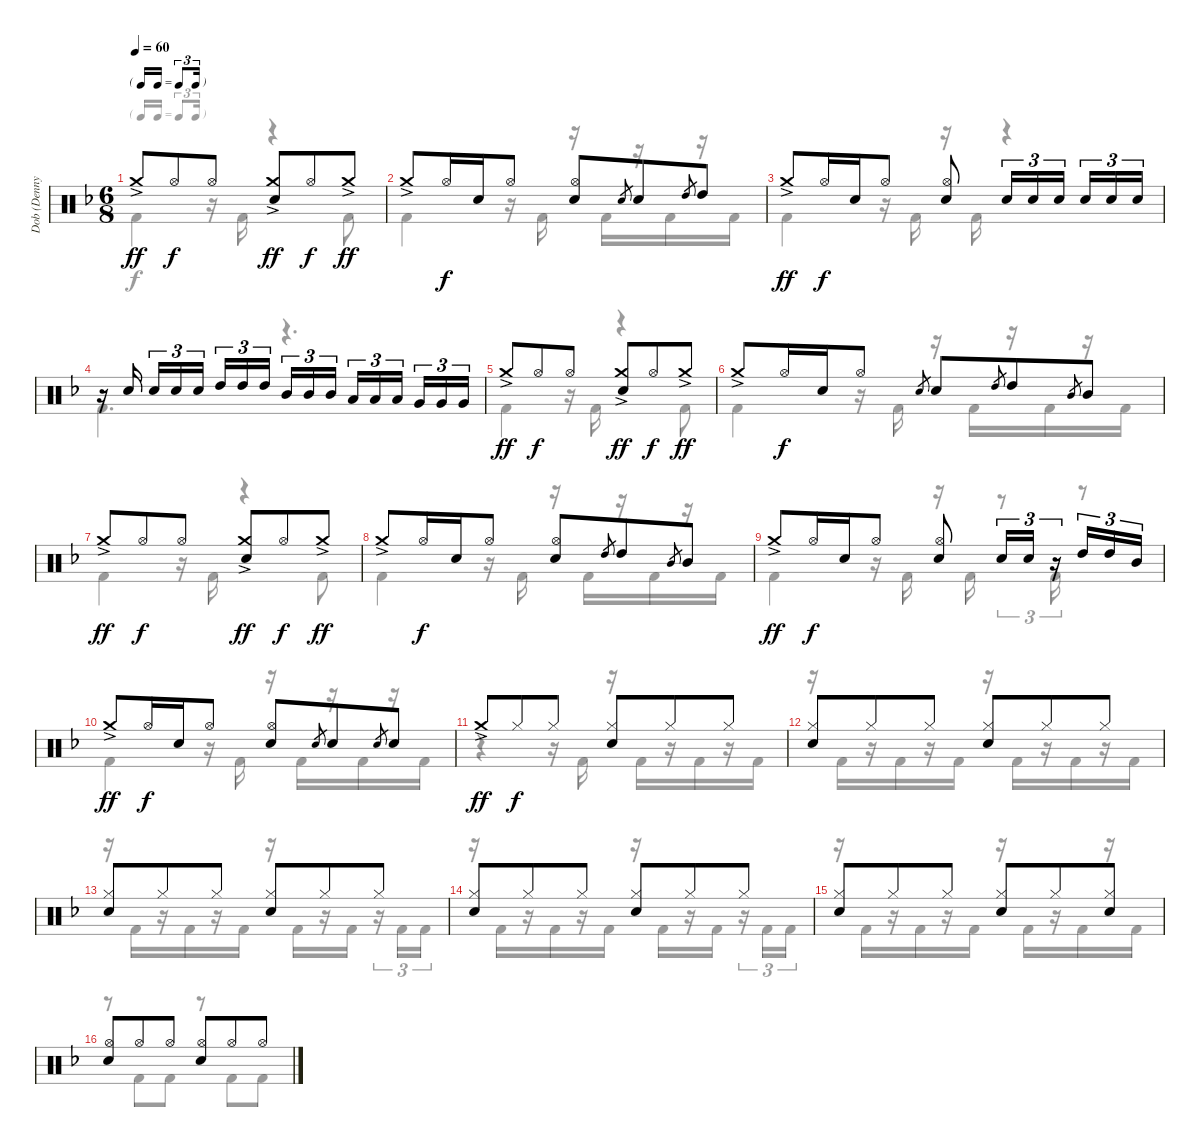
\track ("Dob (Denny Carmassy)" "Dob (Denny") {instrument percussion}
\staff {score}
\articulation defaults
\voice
\ts (6 8)
\tf triplet16th
\tempo 60
\clef neutral
\ks f "Crash medium (hit)"{ac}.8{dy ff} "Hi-Hat (open)".8{dy f} "Hi-Hat (open)".8
("Crash medium (hit)"{ac} "Electric Snare (hit)").8{dy ff} "Hi-Hat (open)".8{dy f} "Crash medium (hit)"{ac}.8{dy ff} |
"Crash medium (hit)"{ac}.8 "Hi-Hat (open)".16{dy f} "Electric Snare (hit)".16 "Hi-Hat (open)".8 ("Hi-Hat (open)" "Electric Snare (hit)").8 "Electric Snare (hit)".8{gr} "Electric Snare (hit)".8 "High Tom (hit)".8{gr} "High Tom (hit)".8 |
"Crash medium (hit)"{ac}.8{dy ff} "Hi-Hat (open)".16{dy f} "Electric Snare (hit)".16 "Hi-Hat (open)".8 ("Hi-Hat (open)" "Electric Snare (hit)").8 "Electric Snare (hit)".16{tu (3 2)} "Electric Snare (hit)".16{tu (3 2)} "Electric Snare (hit)".16{tu (3 2) beam splitsecondary} "Electric Snare (hit)".16{tu (3 2)} "Electric Snare (hit)".16{tu (3 2)} "Electric Snare (hit)".16{tu (3 2)} |
r.16 "Electric Snare (hit)".16{beam splitsecondary} "Electric Snare (hit)".16{tu (3 2)} "Electric Snare (hit)".16{tu (3 2)} "Electric Snare (hit)".16{tu (3 2) beam splitsecondary} "High Tom (hit)".16{tu (3 2)} "High Tom (hit)".16{tu (3 2)} "High Tom (hit)".16{tu (3 2)} "Mid Tom (hit)".16{tu (3 2)} "Mid Tom (hit)".16{tu (3 2)} "Mid Tom (hit)".16{tu (3 2) beam splitsecondary} "Low Tom (hit)".16{tu (3 2)} "Low Tom (hit)".16{tu (3 2)} "Low Tom (hit)".16{tu (3 2) beam splitsecondary} "Very Low Tom (hit)".16{tu (3 2)} "Very Low Tom (hit)".16{tu (3 2)} "Very Low Tom (hit)".16{tu (3 2)} |
"Crash medium (hit)"{ac}.8{dy ff} "Hi-Hat (open)".8{dy f} "Hi-Hat (open)".8 ("Crash medium (hit)"{ac} "Electric Snare (hit)").8{dy ff} "Hi-Hat (open)".8{dy f} "Crash medium (hit)"{ac}.8{dy ff} |
"Crash medium (hit)"{ac}.8 "Hi-Hat (open)".16{dy f} "Electric Snare (hit)".16 "Hi-Hat (open)".8 "Electric Snare (hit)".8{gr} "Electric Snare (hit)".8 "High Tom (hit)".8{gr} "High Tom (hit)".8 "Mid Tom (hit)".8{gr} "Mid Tom (hit)".8 |
"Crash medium (hit)"{ac}.8{dy ff} "Hi-Hat (open)".8{dy f} "Hi-Hat (open)".8 ("Crash medium (hit)"{ac} "Electric Snare (hit)").8{dy ff} "Hi-Hat (open)".8{dy f} "Crash medium (hit)"{ac}.8{dy ff} |
"Crash medium (hit)"{ac}.8 "Hi-Hat (open)".16{dy f} "Electric Snare (hit)".16 "Hi-Hat (open)".8 ("Hi-Hat (open)" "Electric Snare (hit)").8 "High Tom (hit)".8{gr} "High Tom (hit)".8 "Mid Tom (hit)".8{gr} "Mid Tom (hit)".8 |
"Crash medium (hit)"{ac}.8{dy ff} "Hi-Hat (open)".16{dy f} "Electric Snare (hit)".16 "Hi-Hat (open)".8 ("Hi-Hat (open)" "Electric Snare (hit)").8 "Electric Snare (hit)".16{tu (3 2)} "Electric Snare (hit)".16{tu (3 2)} r.16{tu (3 2)} "High Tom (hit)".16{tu (3 2)} "High Tom (hit)".16{tu (3 2)} "Mid Tom (hit)".16{tu (3 2)} |
"Crash medium (hit)"{ac}.8{dy ff} "Hi-Hat (open)".16{dy f} "Electric Snare (hit)".16 "Hi-Hat (open)".8 ("Hi-Hat (open)" "Electric Snare (hit)").8 "Electric Snare (hit)".8{gr} "Electric Snare (hit)".8 "Electric Snare (hit)".8{gr} "Electric Snare (hit)".8 |
"Crash medium (hit)"{ac}.8{dy ff} "Hi-Hat (closed)".8{dy f} "Hi-Hat (closed)".8 ("Hi-Hat (closed)" "Electric Snare (hit)").8 "Hi-Hat (closed)".8 "Hi-Hat (closed)".8 |
("Hi-Hat (closed)" "Electric Snare (hit)").8 "Hi-Hat (closed)".8 "Hi-Hat (closed)".8 ("Hi-Hat (closed)" "Electric Snare (hit)").8 "Hi-Hat (closed)".8 "Hi-Hat (closed)".8 |
("Hi-Hat (closed)" "Electric Snare (hit)").8 "Hi-Hat (closed)".8 "Hi-Hat (closed)".8 ("Hi-Hat (closed)" "Electric Snare (hit)").8 "Hi-Hat (closed)".8 "Hi-Hat (closed)".8 |
("Hi-Hat (closed)" "Electric Snare (hit)").8 "Hi-Hat (closed)".8 "Hi-Hat (closed)".8 ("Hi-Hat (closed)" "Electric Snare (hit)").8 "Hi-Hat (closed)".8 "Hi-Hat (closed)".8 |
("Hi-Hat (closed)" "Electric Snare (hit)").8 "Hi-Hat (closed)".8 "Hi-Hat (closed)".8 ("Hi-Hat (closed)" "Electric Snare (hit)").8 "Hi-Hat (closed)".8 ("Hi-Hat (closed)" "Electric Snare (hit)").8 |
("Hi-Hat (open)" "Electric Snare (hit)").8 "Hi-Hat (open)".8 "Hi-Hat (open)".8 ("Hi-Hat (open)" "Electric Snare (hit)").8 "Hi-Hat (open)".8 "Hi-Hat (open)".8
\voice
\clef neutral
\ottava regular
\simile none
\ks f "Kick (hit) 2".4{dy f}
r.16 "Kick (hit) 2".16 r.4 "Kick (hit) 2".8 |
"Kick (hit) 2".4 r.16 "Kick (hit) 2".16 r.16 "Kick (hit) 2".16 r.16 "Kick (hit) 2".16 r.16 "Kick (hit) 2".16 |
"Kick (hit) 2".4 r.16 "Kick (hit) 2".16 r.16 "Kick (hit) 2".16 r.4 |
"Kick (hit) 2".4{d} r.4{d} |
"Kick (hit) 2".4 r.16 "Kick (hit) 2".16 r.4 "Kick (hit) 2".8 |
"Kick (hit) 2".4 r.16 "Kick (hit) 2".16 r.16 "Kick (hit) 2".16 r.16 "Kick (hit) 2".16 r.16 "Kick (hit) 2".16 |
"Kick (hit) 2".4 r.16 "Kick (hit) 2".16 r.4 "Kick (hit) 2".8 |
"Kick (hit) 2".4 r.16 "Kick (hit) 2".16 r.16 "Kick (hit) 2".16 r.16 "Kick (hit) 2".16 r.16 "Kick (hit) 2".16 |
"Kick (hit) 2".4 r.16 "Kick (hit) 2".16 r.16 "Kick (hit) 2".16 r.8{tu (3 2)} "Kick (hit) 2".16{tu (3 2)} r.8 |
"Kick (hit) 2".4 r.16 "Kick (hit) 2".16 r.16 "Kick (hit) 2".16 r.16 "Kick (hit) 2".16 r.16 "Kick (hit) 2".16 |
r.4 r.16 "Kick (hit) 2".16 r.16 "Kick (hit) 2".16 r.16 "Kick (hit) 2".16 r.16 "Kick (hit) 2".16 |
r.16 "Kick (hit) 2".16 r.16 "Kick (hit) 2".16 r.16 "Kick (hit) 2".16 r.16 "Kick (hit) 2".16 r.16 "Kick (hit) 2".16 r.16 "Kick (hit) 2".16 |
r.16 "Kick (hit) 2".16 r.16 "Kick (hit) 2".16 r.16 "Kick (hit) 2".16 r.16 "Kick (hit) 2".16 r.16 "Kick (hit) 2".16 r.16{tu (3 2)} "Kick (hit) 2".16{tu (3 2)} "Kick (hit) 2".16{tu (3 2)} |
r.16 "Kick (hit) 2".16 r.16 "Kick (hit) 2".16 r.16 "Kick (hit) 2".16 r.16 "Kick (hit) 2".16 r.16 "Kick (hit) 2".16 r.16{tu (3 2)} "Kick (hit) 2".16{tu (3 2)} "Kick (hit) 2".16{tu (3 2)} |
r.16 "Kick (hit) 2".16 r.16 "Kick (hit) 2".16 r.16 "Kick (hit) 2".16 r.16 "Kick (hit) 2".16 r.16 "Kick (hit) 2".16 r.16 "Kick (hit) 2".16 |
r.8 "Kick (hit) 2".8 "Kick (hit) 2".8 r.8 "Kick (hit) 2".8 "Kick (hit) 2".8
